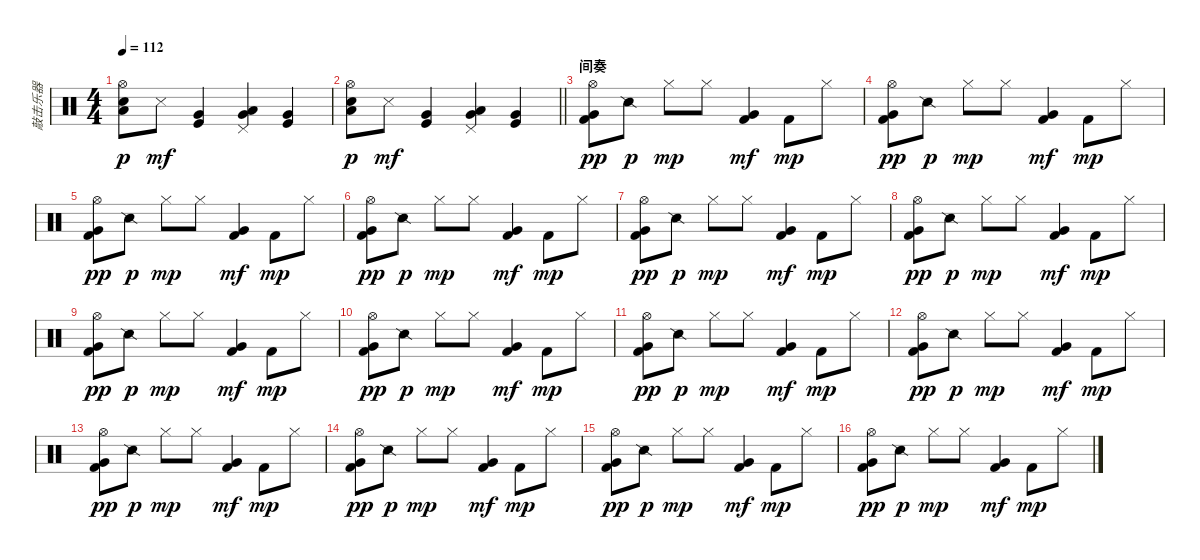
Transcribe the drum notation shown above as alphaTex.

\track ("敲击乐器" "敲击乐器") {instrument percussion}
\staff {score}
\articulation defaults
\ts (4 4)
\tempo 112
\clef neutral
\ks c
("Low Floor Tom (hit)" "Snare (hit) 2" "Hi-Hat (open)").8{dy p} "Metronome (hit)".8{dy mf} ("Kick (hit)" "Very Low Tom (hit)").4 ("Very Low Tom (hit)" "Pedal Hi-Hat (hit)" "Low Tom (hit)").4 ("Kick (hit)" "Very Low Tom (hit)").4 |
\barLineRight lightlight
("Low Floor Tom (hit)" "Snare (hit) 2" "Hi-Hat (open)").8{dy p} "Metronome (hit)".8{dy mf} ("Kick (hit)" "Very Low Tom (hit)").4 ("Very Low Tom (hit)" "Pedal Hi-Hat (hit)" "Low Tom (hit)").4 ("Kick (hit)" "Very Low Tom (hit)").4 |
\section ("" "间奏")
("Very Low Tom (hit)" "Kick (hit) 2" "Hi-Hat (open)").8{dy pp} "Snare (side stick) 2".8{dy p} "Hi-Hat (closed)".8{dy mp} "Hi-Hat (closed)".8 ("Very Low Tom (hit)" "Kick (hit) 2").4{dy mf} "Kick (hit) 2".8{dy mp} "Hi-Hat (closed)".8 |
("Very Low Tom (hit)" "Kick (hit) 2" "Hi-Hat (open)").8{dy pp} "Snare (side stick) 2".8{dy p} "Hi-Hat (closed)".8{dy mp} "Hi-Hat (closed)".8 ("Very Low Tom (hit)" "Kick (hit) 2").4{dy mf} "Kick (hit) 2".8{dy mp} "Hi-Hat (closed)".8 |
("Very Low Tom (hit)" "Kick (hit) 2" "Hi-Hat (open)").8{dy pp} "Snare (side stick) 2".8{dy p} "Hi-Hat (closed)".8{dy mp} "Hi-Hat (closed)".8 ("Very Low Tom (hit)" "Kick (hit) 2").4{dy mf} "Kick (hit) 2".8{dy mp} "Hi-Hat (closed)".8 |
("Very Low Tom (hit)" "Kick (hit) 2" "Hi-Hat (open)").8{dy pp} "Snare (side stick) 2".8{dy p} "Hi-Hat (closed)".8{dy mp} "Hi-Hat (closed)".8 ("Very Low Tom (hit)" "Kick (hit) 2").4{dy mf} "Kick (hit) 2".8{dy mp} "Hi-Hat (closed)".8 |
("Very Low Tom (hit)" "Kick (hit) 2" "Hi-Hat (open)").8{dy pp} "Snare (side stick) 2".8{dy p} "Hi-Hat (closed)".8{dy mp} "Hi-Hat (closed)".8 ("Very Low Tom (hit)" "Kick (hit) 2").4{dy mf} "Kick (hit) 2".8{dy mp} "Hi-Hat (closed)".8 |
("Very Low Tom (hit)" "Kick (hit) 2" "Hi-Hat (open)").8{dy pp} "Snare (side stick) 2".8{dy p} "Hi-Hat (closed)".8{dy mp} "Hi-Hat (closed)".8 ("Very Low Tom (hit)" "Kick (hit) 2").4{dy mf} "Kick (hit) 2".8{dy mp} "Hi-Hat (closed)".8 |
("Very Low Tom (hit)" "Kick (hit) 2" "Hi-Hat (open)").8{dy pp} "Snare (side stick) 2".8{dy p} "Hi-Hat (closed)".8{dy mp} "Hi-Hat (closed)".8 ("Very Low Tom (hit)" "Kick (hit) 2").4{dy mf} "Kick (hit) 2".8{dy mp} "Hi-Hat (closed)".8 |
("Very Low Tom (hit)" "Kick (hit) 2" "Hi-Hat (open)").8{dy pp} "Snare (side stick) 2".8{dy p} "Hi-Hat (closed)".8{dy mp} "Hi-Hat (closed)".8 ("Very Low Tom (hit)" "Kick (hit) 2").4{dy mf} "Kick (hit) 2".8{dy mp} "Hi-Hat (closed)".8 |
("Very Low Tom (hit)" "Kick (hit) 2" "Hi-Hat (open)").8{dy pp} "Snare (side stick) 2".8{dy p} "Hi-Hat (closed)".8{dy mp} "Hi-Hat (closed)".8 ("Very Low Tom (hit)" "Kick (hit) 2").4{dy mf} "Kick (hit) 2".8{dy mp} "Hi-Hat (closed)".8 |
("Very Low Tom (hit)" "Kick (hit) 2" "Hi-Hat (open)").8{dy pp} "Snare (side stick) 2".8{dy p} "Hi-Hat (closed)".8{dy mp} "Hi-Hat (closed)".8 ("Very Low Tom (hit)" "Kick (hit) 2").4{dy mf} "Kick (hit) 2".8{dy mp} "Hi-Hat (closed)".8 |
("Very Low Tom (hit)" "Kick (hit) 2" "Hi-Hat (open)").8{dy pp} "Snare (side stick) 2".8{dy p} "Hi-Hat (closed)".8{dy mp} "Hi-Hat (closed)".8 ("Very Low Tom (hit)" "Kick (hit) 2").4{dy mf} "Kick (hit) 2".8{dy mp} "Hi-Hat (closed)".8 |
("Very Low Tom (hit)" "Kick (hit) 2" "Hi-Hat (open)").8{dy pp} "Snare (side stick) 2".8{dy p} "Hi-Hat (closed)".8{dy mp} "Hi-Hat (closed)".8 ("Very Low Tom (hit)" "Kick (hit) 2").4{dy mf} "Kick (hit) 2".8{dy mp} "Hi-Hat (closed)".8 |
("Very Low Tom (hit)" "Kick (hit) 2" "Hi-Hat (open)").8{dy pp} "Snare (side stick) 2".8{dy p} "Hi-Hat (closed)".8{dy mp} "Hi-Hat (closed)".8 ("Very Low Tom (hit)" "Kick (hit) 2").4{dy mf} "Kick (hit) 2".8{dy mp} "Hi-Hat (closed)".8 |
("Very Low Tom (hit)" "Kick (hit) 2" "Hi-Hat (open)").8{dy pp} "Snare (side stick) 2".8{dy p} "Hi-Hat (closed)".8{dy mp} "Hi-Hat (closed)".8 ("Very Low Tom (hit)" "Kick (hit) 2").4{dy mf} "Kick (hit) 2".8{dy mp} "Hi-Hat (closed)".8
